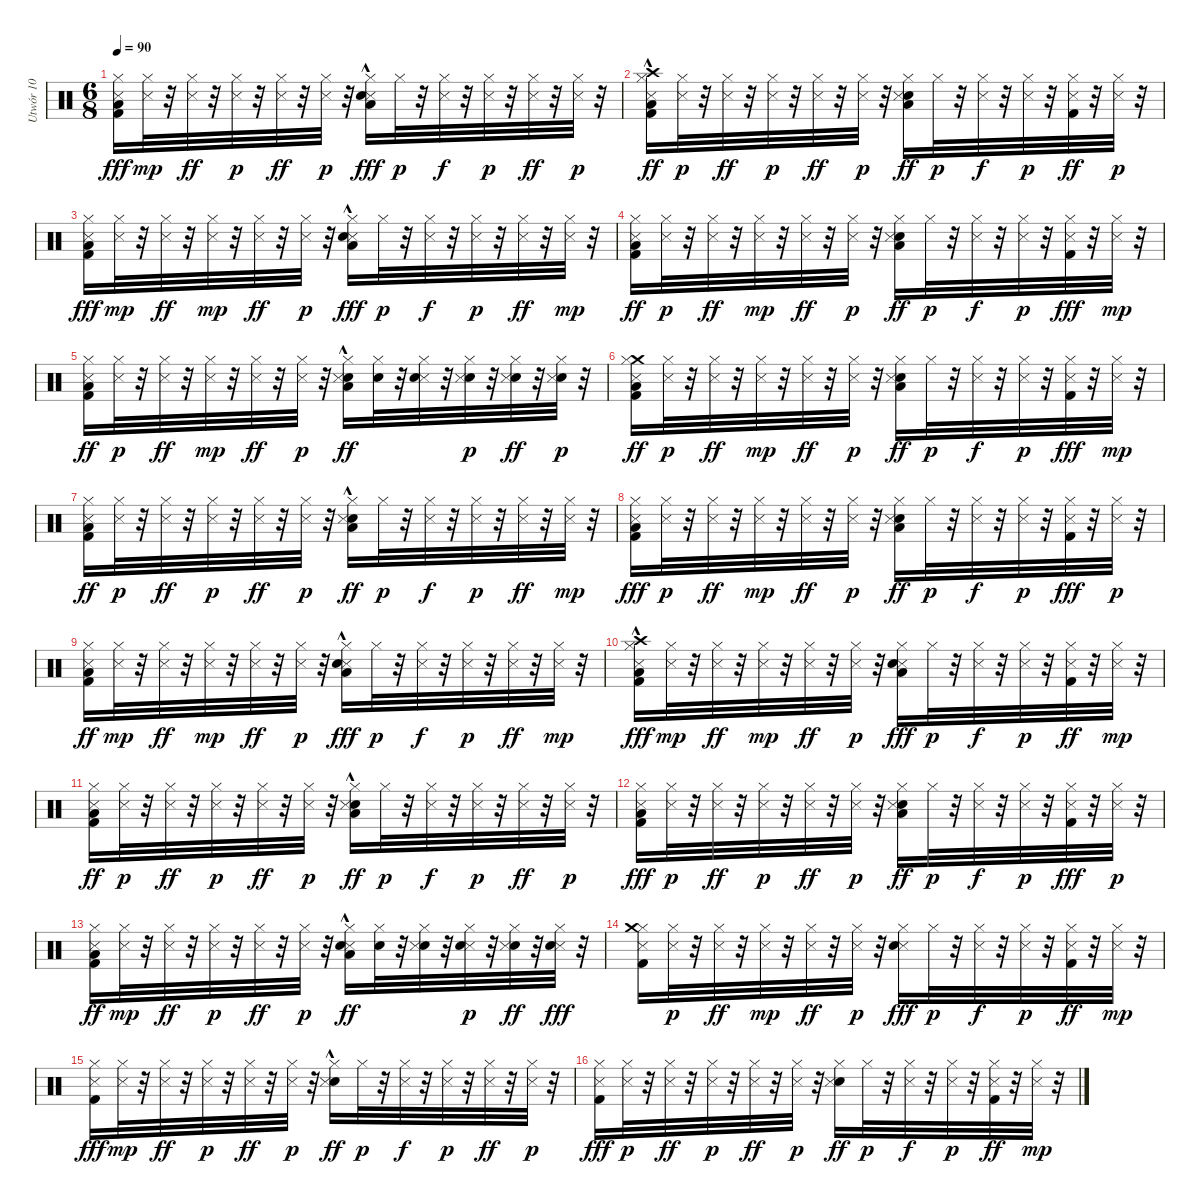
\track ("Utwór 10" "Utwór 10") {instrument percussion}
\staff {score}
\articulation defaults
\ts (6 8)
\tempo 90
\clef neutral
\ks c
("Snare (side stick) 3" "Low Floor Tom (hit)" "Hi-Hat (closed)" "Kick (hit) 2").16{dy fff} ("Hi-Hat (closed)" "Snare (side stick) 3").32{dy mp} r.32 ("Snare (side stick) 3" "Hi-Hat (closed)").32{dy ff} r.32 ("Snare (side stick) 3" "Hi-Hat (closed)").32{dy p} r.32 ("Hi-Hat (closed)" "Snare (side stick) 3").32{dy ff} r.32 ("Hi-Hat (closed)" "Snare (side stick) 3").32{dy p} r.32 ("Low Floor Tom (hit)"{hac} "Hi-Hat (closed)" "Snare (side stick) 3" "Snare (hit) 2").16{dy fff} "Hi-Hat (closed)".32{dy p} r.32 ("Hi-Hat (closed)" "Snare (side stick) 3").32{dy f} r.32 ("Snare (side stick) 3" "Hi-Hat (closed)").32{dy p} r.32 ("Snare (side stick) 3" "Hi-Hat (closed)").32{dy ff} r.32 ("Snare (side stick) 3" "Hi-Hat (closed)").32{dy p} r.32 |
("Kick (hit) 2" "Low Floor Tom (hit)" "Hi-Hat (closed)" "Snare (side stick) 3" "Crash high (hit)"{hac}).16{dy ff} ("Snare (side stick) 3" "Hi-Hat (closed)").32{dy p} r.32 ("Snare (side stick) 3" "Hi-Hat (closed)").32{dy ff} r.32 ("Snare (side stick) 3" "Hi-Hat (closed)").32{dy p} r.32 ("Snare (side stick) 3" "Hi-Hat (closed)").32{dy ff} r.32 ("Hi-Hat (closed)" "Snare (side stick) 3").32{dy p} r.32 ("Snare (hit) 2" "Low Floor Tom (hit)" "Hi-Hat (closed)" "Snare (side stick) 3").16{dy ff} "Hi-Hat (closed)".32{dy p} r.32 ("Snare (side stick) 3" "Hi-Hat (closed)").32{dy f} r.32 ("Hi-Hat (closed)" "Snare (side stick) 3").32{dy p} r.32 ("Kick (hit) 2" "Snare (side stick) 3" "Hi-Hat (closed)").32{dy ff} r.32 ("Snare (side stick) 3" "Hi-Hat (closed)").32{dy p} r.32 |
("Low Floor Tom (hit)" "Snare (side stick) 3" "Hi-Hat (closed)" "Kick (hit) 2").16{dy fff} ("Hi-Hat (closed)" "Snare (side stick) 3").32{dy mp} r.32 ("Snare (side stick) 3" "Hi-Hat (closed)").32{dy ff} r.32 ("Hi-Hat (closed)" "Snare (side stick) 3").32{dy mp} r.32 ("Hi-Hat (closed)" "Snare (side stick) 3").32{dy ff} r.32 ("Snare (side stick) 3" "Hi-Hat (closed)").32{dy p} r.32 ("Snare (side stick) 3" "Low Floor Tom (hit)" "Snare (hit) 2"{hac} "Hi-Hat (closed)").16{dy fff} "Hi-Hat (closed)".32{dy p} r.32 ("Hi-Hat (closed)" "Snare (side stick) 3").32{dy f} r.32 ("Hi-Hat (closed)" "Snare (side stick) 3").32{dy p} r.32 ("Hi-Hat (closed)" "Snare (side stick) 3").32{dy ff} r.32 ("Hi-Hat (closed)" "Snare (side stick) 3").32{dy mp} r.32 |
("Low Floor Tom (hit)" "Kick (hit) 2" "Snare (side stick) 3" "Hi-Hat (closed)").16{dy ff} ("Snare (side stick) 3" "Hi-Hat (closed)").32{dy p} r.32 ("Snare (side stick) 3" "Hi-Hat (closed)").32{dy ff} r.32 ("Hi-Hat (closed)" "Snare (side stick) 3").32{dy mp} r.32 ("Hi-Hat (closed)" "Snare (side stick) 3").32{dy ff} r.32 ("Snare (side stick) 3" "Hi-Hat (closed)").32{dy p} r.32 ("Snare (hit) 2" "Low Floor Tom (hit)" "Hi-Hat (closed)" "Snare (side stick) 3").16{dy ff} "Hi-Hat (closed)".32{dy p} r.32 ("Hi-Hat (closed)" "Snare (side stick) 3").32{dy f} r.32 ("Snare (side stick) 3" "Hi-Hat (closed)").32{dy p} r.32 ("Hi-Hat (closed)" "Snare (side stick) 3" "Kick (hit) 2").32{dy fff} r.32 ("Hi-Hat (closed)" "Snare (side stick) 3").32{dy mp} r.32 |
("Snare (side stick) 3" "Low Floor Tom (hit)" "Kick (hit) 2" "Hi-Hat (closed)").16{dy ff} ("Snare (side stick) 3" "Hi-Hat (closed)").32{dy p} r.32 ("Hi-Hat (closed)" "Snare (side stick) 3").32{dy ff} r.32 ("Hi-Hat (closed)" "Snare (side stick) 3").32{dy mp} r.32 ("Snare (side stick) 3" "Hi-Hat (closed)").32{dy ff} r.32 ("Hi-Hat (closed)" "Snare (side stick) 3").32{dy p} r.32 ("Snare (hit) 2" "Hi-Hat (closed)" "Snare (side stick) 3" "Low Floor Tom (hit)"{hac}).16{dy ff} ("Hi-Hat (closed)" "Snare (hit) 2").32 r.32 ("Hi-Hat (closed)" "Snare (side stick) 3" "Snare (hit) 2").32 r.32 ("Hi-Hat (closed)" "Snare (hit) 2" "Snare (side stick) 3").32{dy p} r.32 ("Hi-Hat (closed)" "Snare (hit) 2" "Snare (side stick) 3").32{dy ff} r.32 ("Snare (hit) 2" "Snare (side stick) 3" "Hi-Hat (closed)").32{dy p} r.32 |
("Snare (side stick) 3" "Kick (hit) 2" "Low Floor Tom (hit)" "Crash medium (hit)" "Hi-Hat (closed)").16{dy ff} ("Snare (side stick) 3" "Hi-Hat (closed)").32{dy p} r.32 ("Snare (side stick) 3" "Hi-Hat (closed)").32{dy ff} r.32 ("Hi-Hat (closed)" "Snare (side stick) 3").32{dy mp} r.32 ("Snare (side stick) 3" "Hi-Hat (closed)").32{dy ff} r.32 ("Snare (side stick) 3" "Hi-Hat (closed)").32{dy p} r.32 ("Hi-Hat (closed)" "Snare (hit) 2" "Low Floor Tom (hit)" "Snare (side stick) 3").16{dy ff} "Hi-Hat (closed)".32{dy p} r.32 ("Snare (side stick) 3" "Hi-Hat (closed)").32{dy f} r.32 ("Snare (side stick) 3" "Hi-Hat (closed)").32{dy p} r.32 ("Snare (side stick) 3" "Kick (hit) 2" "Hi-Hat (closed)").32{dy fff} r.32 ("Hi-Hat (closed)" "Snare (side stick) 3").32{dy mp} r.32 |
("Low Floor Tom (hit)" "Kick (hit) 2" "Snare (side stick) 3" "Hi-Hat (closed)").16{dy ff} ("Snare (side stick) 3" "Hi-Hat (closed)").32{dy p} r.32 ("Snare (side stick) 3" "Hi-Hat (closed)").32{dy ff} r.32 ("Snare (side stick) 3" "Hi-Hat (closed)").32{dy p} r.32 ("Snare (side stick) 3" "Hi-Hat (closed)").32{dy ff} r.32 ("Snare (side stick) 3" "Hi-Hat (closed)").32{dy p} r.32 ("Low Floor Tom (hit)" "Snare (hit) 2"{hac} "Snare (side stick) 3" "Hi-Hat (closed)").16{dy ff} "Hi-Hat (closed)".32{dy p} r.32 ("Snare (side stick) 3" "Hi-Hat (closed)").32{dy f} r.32 ("Hi-Hat (closed)" "Snare (side stick) 3").32{dy p} r.32 ("Hi-Hat (closed)" "Snare (side stick) 3").32{dy ff} r.32 ("Hi-Hat (closed)" "Snare (side stick) 3").32{dy mp} r.32 |
("Hi-Hat (closed)" "Snare (side stick) 3" "Low Floor Tom (hit)" "Kick (hit) 2").16{dy fff} ("Snare (side stick) 3" "Hi-Hat (closed)").32{dy p} r.32 ("Snare (side stick) 3" "Hi-Hat (closed)").32{dy ff} r.32 ("Hi-Hat (closed)" "Snare (side stick) 3").32{dy mp} r.32 ("Snare (side stick) 3" "Hi-Hat (closed)").32{dy ff} r.32 ("Hi-Hat (closed)" "Snare (side stick) 3").32{dy p} r.32 ("Snare (hit) 2" "Hi-Hat (closed)" "Snare (side stick) 3" "Low Floor Tom (hit)").16{dy ff} "Hi-Hat (closed)".32{dy p} r.32 ("Snare (side stick) 3" "Hi-Hat (closed)").32{dy f} r.32 ("Hi-Hat (closed)" "Snare (side stick) 3").32{dy p} r.32 ("Snare (side stick) 3" "Kick (hit) 2" "Hi-Hat (closed)").32{dy fff} r.32 ("Snare (side stick) 3" "Hi-Hat (closed)").32{dy p} r.32 |
("Hi-Hat (closed)" "Snare (side stick) 3" "Kick (hit) 2" "Low Floor Tom (hit)").16{dy ff} ("Hi-Hat (closed)" "Snare (side stick) 3").32{dy mp} r.32 ("Snare (side stick) 3" "Hi-Hat (closed)").32{dy ff} r.32 ("Hi-Hat (closed)" "Snare (side stick) 3").32{dy mp} r.32 ("Snare (side stick) 3" "Hi-Hat (closed)").32{dy ff} r.32 ("Snare (side stick) 3" "Hi-Hat (closed)").32{dy p} r.32 ("Hi-Hat (closed)" "Low Floor Tom (hit)"{hac} "Snare (side stick) 3" "Snare (hit) 2").16{dy fff} "Hi-Hat (closed)".32{dy p} r.32 ("Snare (side stick) 3" "Hi-Hat (closed)").32{dy f} r.32 ("Hi-Hat (closed)" "Snare (side stick) 3").32{dy p} r.32 ("Hi-Hat (closed)" "Snare (side stick) 3").32{dy ff} r.32 ("Hi-Hat (closed)" "Snare (side stick) 3").32{dy mp} r.32 |
("Hi-Hat (closed)" "Snare (side stick) 3" "Low Floor Tom (hit)" "Crash high (hit)"{hac} "Kick (hit) 2").16{dy fff} ("Hi-Hat (closed)" "Snare (side stick) 3").32{dy mp} r.32 ("Hi-Hat (closed)" "Snare (side stick) 3").32{dy ff} r.32 ("Hi-Hat (closed)" "Snare (side stick) 3").32{dy mp} r.32 ("Hi-Hat (closed)" "Snare (side stick) 3").32{dy ff} r.32 ("Snare (side stick) 3" "Hi-Hat (closed)").32{dy p} r.32 ("Snare (side stick) 3" "Low Floor Tom (hit)" "Hi-Hat (closed)" "Snare (hit) 2").16{dy fff} "Hi-Hat (closed)".32{dy p} r.32 ("Snare (side stick) 3" "Hi-Hat (closed)").32{dy f} r.32 ("Hi-Hat (closed)" "Snare (side stick) 3").32{dy p} r.32 ("Kick (hit) 2" "Hi-Hat (closed)" "Snare (side stick) 3").32{dy ff} r.32 ("Hi-Hat (closed)" "Snare (side stick) 3").32{dy mp} r.32 |
("Kick (hit) 2" "Low Floor Tom (hit)" "Hi-Hat (closed)" "Snare (side stick) 3").16{dy ff} ("Snare (side stick) 3" "Hi-Hat (closed)").32{dy p} r.32 ("Snare (side stick) 3" "Hi-Hat (closed)").32{dy ff} r.32 ("Snare (side stick) 3" "Hi-Hat (closed)").32{dy p} r.32 ("Snare (side stick) 3" "Hi-Hat (closed)").32{dy ff} r.32 ("Snare (side stick) 3" "Hi-Hat (closed)").32{dy p} r.32 ("Low Floor Tom (hit)" "Hi-Hat (closed)" "Snare (hit) 2"{hac} "Snare (side stick) 3").16{dy ff} "Hi-Hat (closed)".32{dy p} r.32 ("Hi-Hat (closed)" "Snare (side stick) 3").32{dy f} r.32 ("Snare (side stick) 3" "Hi-Hat (closed)").32{dy p} r.32 ("Snare (side stick) 3" "Hi-Hat (closed)").32{dy ff} r.32 ("Snare (side stick) 3" "Hi-Hat (closed)").32{dy p} r.32 |
("Snare (side stick) 3" "Hi-Hat (closed)" "Kick (hit) 2" "Low Floor Tom (hit)").16{dy fff} ("Snare (side stick) 3" "Hi-Hat (closed)").32{dy p} r.32 ("Snare (side stick) 3" "Hi-Hat (closed)").32{dy ff} r.32 ("Snare (side stick) 3" "Hi-Hat (closed)").32{dy p} r.32 ("Hi-Hat (closed)" "Snare (side stick) 3").32{dy ff} r.32 ("Hi-Hat (closed)" "Snare (side stick) 3").32{dy p} r.32 ("Hi-Hat (closed)" "Low Floor Tom (hit)" "Snare (hit) 2" "Snare (side stick) 3").16{dy ff} "Hi-Hat (closed)".32{dy p} r.32 ("Snare (side stick) 3" "Hi-Hat (closed)").32{dy f} r.32 ("Snare (side stick) 3" "Hi-Hat (closed)").32{dy p} r.32 ("Snare (side stick) 3" "Hi-Hat (closed)" "Kick (hit) 2").32{dy fff} r.32 ("Snare (side stick) 3" "Hi-Hat (closed)").32{dy p} r.32 |
("Kick (hit) 2" "Low Floor Tom (hit)" "Snare (side stick) 3" "Hi-Hat (closed)").16{dy ff} ("Hi-Hat (closed)" "Snare (side stick) 3").32{dy mp} r.32 ("Hi-Hat (closed)" "Snare (side stick) 3").32{dy ff} r.32 ("Snare (side stick) 3" "Hi-Hat (closed)").32{dy p} r.32 ("Snare (side stick) 3" "Hi-Hat (closed)").32{dy ff} r.32 ("Snare (side stick) 3" "Hi-Hat (closed)").32{dy p} r.32 ("Snare (side stick) 3" "Snare (hit) 2" "Low Floor Tom (hit)"{hac} "Hi-Hat (closed)").16{dy ff} ("Hi-Hat (closed)" "Snare (hit) 2").32 r.32 ("Snare (hit) 2" "Hi-Hat (closed)" "Snare (side stick) 3").32 r.32 ("Snare (side stick) 3" "Snare (hit) 2" "Hi-Hat (closed)").32{dy p} r.32 ("Hi-Hat (closed)" "Snare (hit) 2" "Snare (side stick) 3").32{dy ff} r.32 ("Snare (side stick) 3" "Hi-Hat (closed)" "Snare (hit) 2").32{dy fff} r.32 |
("Hi-Hat (closed)" "Snare (side stick) 3" "Crash medium (hit)" "Kick (hit) 2").16 ("Snare (side stick) 3" "Hi-Hat (closed)").32{dy p} r.32 ("Hi-Hat (closed)" "Snare (side stick) 3").32{dy ff} r.32 ("Hi-Hat (closed)" "Snare (side stick) 3").32{dy mp} r.32 ("Snare (side stick) 3" "Hi-Hat (closed)").32{dy ff} r.32 ("Hi-Hat (closed)" "Snare (side stick) 3").32{dy p} r.32 ("Snare (side stick) 3" "Hi-Hat (closed)" "Snare (hit) 2").16{dy fff} "Hi-Hat (closed)".32{dy p} r.32 ("Snare (side stick) 3" "Hi-Hat (closed)").32{dy f} r.32 ("Snare (side stick) 3" "Hi-Hat (closed)").32{dy p} r.32 ("Kick (hit) 2" "Hi-Hat (closed)" "Snare (side stick) 3").32{dy ff} r.32 ("Hi-Hat (closed)" "Snare (side stick) 3").32{dy mp} r.32 |
("Snare (side stick) 3" "Hi-Hat (closed)" "Kick (hit) 2").16{dy fff} ("Hi-Hat (closed)" "Snare (side stick) 3").32{dy mp} r.32 ("Snare (side stick) 3" "Hi-Hat (closed)").32{dy ff} r.32 ("Snare (side stick) 3" "Hi-Hat (closed)").32{dy p} r.32 ("Snare (side stick) 3" "Hi-Hat (closed)").32{dy ff} r.32 ("Hi-Hat (closed)" "Snare (side stick) 3").32{dy p} r.32 ("Hi-Hat (closed)" "Snare (hit) 2"{hac} "Snare (side stick) 3").16{dy ff} "Hi-Hat (closed)".32{dy p} r.32 ("Snare (side stick) 3" "Hi-Hat (closed)").32{dy f} r.32 ("Hi-Hat (closed)" "Snare (side stick) 3").32{dy p} r.32 ("Hi-Hat (closed)" "Snare (side stick) 3").32{dy ff} r.32 ("Snare (side stick) 3" "Hi-Hat (closed)").32{dy p} r.32 |
("Snare (side stick) 3" "Hi-Hat (closed)" "Kick (hit) 2").16{dy fff} ("Snare (side stick) 3" "Hi-Hat (closed)").32{dy p} r.32 ("Hi-Hat (closed)" "Snare (side stick) 3").32{dy ff} r.32 ("Snare (side stick) 3" "Hi-Hat (closed)").32{dy p} r.32 ("Hi-Hat (closed)" "Snare (side stick) 3").32{dy ff} r.32 ("Snare (side stick) 3" "Hi-Hat (closed)").32{dy p} r.32 ("Snare (hit) 2" "Snare (side stick) 3" "Hi-Hat (closed)").16{dy ff} "Hi-Hat (closed)".32{dy p} r.32 ("Snare (side stick) 3" "Hi-Hat (closed)").32{dy f} r.32 ("Hi-Hat (closed)" "Snare (side stick) 3").32{dy p} r.32 ("Hi-Hat (closed)" "Kick (hit) 2" "Snare (side stick) 3").32{dy ff} r.32 ("Hi-Hat (closed)" "Snare (side stick) 3").32{dy mp} r.32
